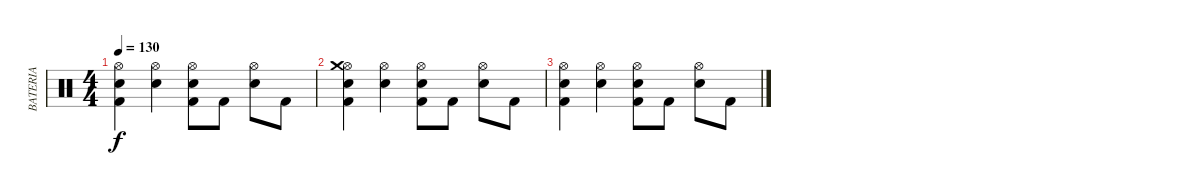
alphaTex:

\track ("BATERIA" "BATERIA") {instrument percussion}
\staff {score}
\articulation defaults
\ts (4 4)
\tempo 130
\clef neutral
\ks c
("Kick (hit) 2" "Electric Snare (hit)" "Hi-Hat (open)").4{dy f} ("Electric Snare (hit)" "Hi-Hat (open)").4 ("Kick (hit) 2" "Electric Snare (hit)" "Hi-Hat (open)").8 "Kick (hit) 2".8 ("Electric Snare (hit)" "Hi-Hat (open)").8 "Kick (hit) 2".8 |
("Kick (hit) 2" "Electric Snare (hit)" "Hi-Hat (open)" "Crash medium (hit)").4 ("Electric Snare (hit)" "Hi-Hat (open)").4 ("Kick (hit) 2" "Electric Snare (hit)" "Hi-Hat (open)").8 "Kick (hit) 2".8 ("Electric Snare (hit)" "Hi-Hat (open)").8 "Kick (hit) 2".8 |
("Kick (hit) 2" "Electric Snare (hit)" "Hi-Hat (open)").4 ("Electric Snare (hit)" "Hi-Hat (open)").4 ("Kick (hit) 2" "Electric Snare (hit)" "Hi-Hat (open)").8 "Kick (hit) 2".8 ("Electric Snare (hit)" "Hi-Hat (open)").8 "Kick (hit) 2".8
